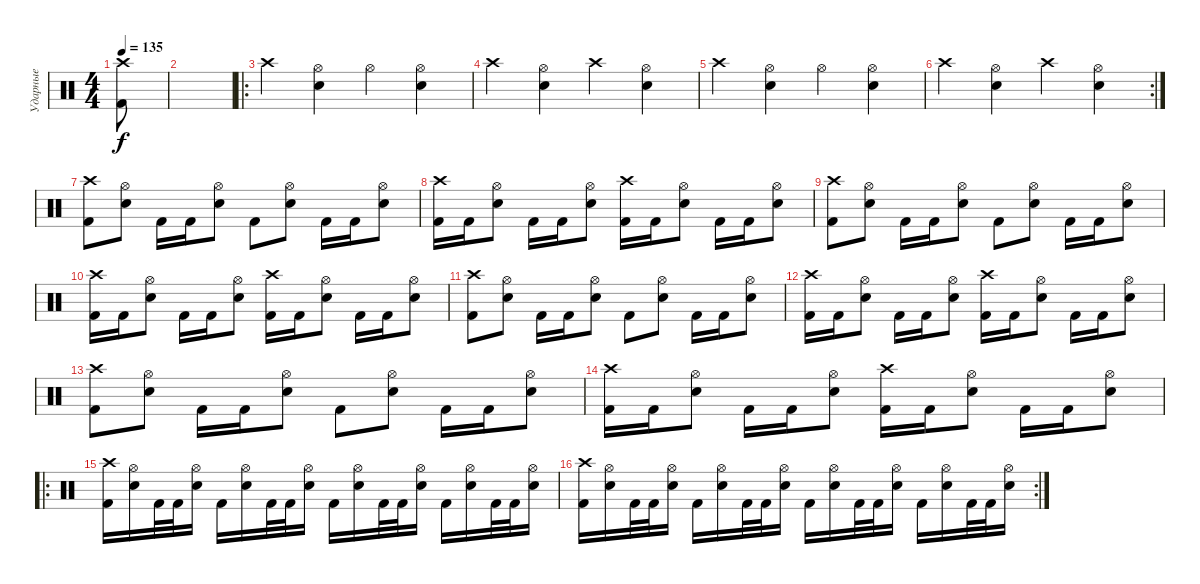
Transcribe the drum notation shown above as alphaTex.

\track ("Ударные" "Ударные") {instrument percussion}
\staff {score}
\articulation defaults
\ts (4 4)
\tempo 135
\clef neutral
\ks c
("Kick (hit) 2" "Crash high (hit)").8{dy f} |
|
\ro "Crash high (hit)".4
("Hi-Hat (open)" "Electric Snare (hit)").4 "Hi-Hat (open)".4 ("Hi-Hat (open)" "Electric Snare (hit)").4 |
"Crash high (hit)".4 ("Hi-Hat (open)" "Electric Snare (hit)").4 "Crash high (hit)".4 ("Hi-Hat (open)" "Electric Snare (hit)").4 |
"Crash high (hit)".4 ("Hi-Hat (open)" "Electric Snare (hit)").4 "Hi-Hat (open)".4 ("Hi-Hat (open)" "Electric Snare (hit)").4 |
\rc 2 "Crash high (hit)".4
("Hi-Hat (open)" "Electric Snare (hit)").4 "Crash high (hit)".4 ("Hi-Hat (open)" "Electric Snare (hit)").4 |
("Kick (hit) 2" "Crash high (hit)").8 ("Electric Snare (hit)" "Hi-Hat (open)").8 "Kick (hit) 2".16 "Kick (hit) 2".16 ("Electric Snare (hit)" "Hi-Hat (open)").8 "Kick (hit) 2".8 ("Electric Snare (hit)" "Hi-Hat (open)").8 "Kick (hit) 2".16 "Kick (hit) 2".16 ("Electric Snare (hit)" "Hi-Hat (open)").8 |
("Kick (hit) 2" "Crash high (hit)").16 "Kick (hit) 2".16 ("Electric Snare (hit)" "Hi-Hat (open)").8 "Kick (hit) 2".16 "Kick (hit) 2".16 ("Electric Snare (hit)" "Hi-Hat (open)").8 ("Kick (hit) 2" "Crash high (hit)").16 "Kick (hit) 2".16 ("Electric Snare (hit)" "Hi-Hat (open)").8 "Kick (hit) 2".16 "Kick (hit) 2".16 ("Electric Snare (hit)" "Hi-Hat (open)").8 |
("Kick (hit) 2" "Crash high (hit)").8 ("Electric Snare (hit)" "Hi-Hat (open)").8 "Kick (hit) 2".16 "Kick (hit) 2".16 ("Electric Snare (hit)" "Hi-Hat (open)").8 "Kick (hit) 2".8 ("Electric Snare (hit)" "Hi-Hat (open)").8 "Kick (hit) 2".16 "Kick (hit) 2".16 ("Electric Snare (hit)" "Hi-Hat (open)").8 |
("Kick (hit) 2" "Crash high (hit)").16 "Kick (hit) 2".16 ("Electric Snare (hit)" "Hi-Hat (open)").8 "Kick (hit) 2".16 "Kick (hit) 2".16 ("Electric Snare (hit)" "Hi-Hat (open)").8 ("Kick (hit) 2" "Crash high (hit)").16 "Kick (hit) 2".16 ("Electric Snare (hit)" "Hi-Hat (open)").8 "Kick (hit) 2".16 "Kick (hit) 2".16 ("Electric Snare (hit)" "Hi-Hat (open)").8 |
("Kick (hit) 2" "Crash high (hit)").8 ("Electric Snare (hit)" "Hi-Hat (open)").8 "Kick (hit) 2".16 "Kick (hit) 2".16 ("Electric Snare (hit)" "Hi-Hat (open)").8 "Kick (hit) 2".8 ("Electric Snare (hit)" "Hi-Hat (open)").8 "Kick (hit) 2".16 "Kick (hit) 2".16 ("Electric Snare (hit)" "Hi-Hat (open)").8 |
("Kick (hit) 2" "Crash high (hit)").16 "Kick (hit) 2".16 ("Electric Snare (hit)" "Hi-Hat (open)").8 "Kick (hit) 2".16 "Kick (hit) 2".16 ("Electric Snare (hit)" "Hi-Hat (open)").8 ("Kick (hit) 2" "Crash high (hit)").16 "Kick (hit) 2".16 ("Electric Snare (hit)" "Hi-Hat (open)").8 "Kick (hit) 2".16 "Kick (hit) 2".16 ("Electric Snare (hit)" "Hi-Hat (open)").8 |
("Kick (hit) 2" "Crash high (hit)").8 ("Electric Snare (hit)" "Hi-Hat (open)").8 "Kick (hit) 2".16 "Kick (hit) 2".16 ("Electric Snare (hit)" "Hi-Hat (open)").8 "Kick (hit) 2".8 ("Electric Snare (hit)" "Hi-Hat (open)").8 "Kick (hit) 2".16 "Kick (hit) 2".16 ("Electric Snare (hit)" "Hi-Hat (open)").8 |
("Kick (hit) 2" "Crash high (hit)").16 "Kick (hit) 2".16 ("Electric Snare (hit)" "Hi-Hat (open)").8 "Kick (hit) 2".16 "Kick (hit) 2".16 ("Electric Snare (hit)" "Hi-Hat (open)").8 ("Kick (hit) 2" "Crash high (hit)").16 "Kick (hit) 2".16 ("Electric Snare (hit)" "Hi-Hat (open)").8 "Kick (hit) 2".16 "Kick (hit) 2".16 ("Electric Snare (hit)" "Hi-Hat (open)").8 |
\ro
("Kick (hit) 2" "Crash high (hit)").16 ("Electric Snare (hit)" "Hi-Hat (open)").16 "Kick (hit) 2".32 "Kick (hit) 2".32 ("Electric Snare (hit)" "Hi-Hat (open)").16 "Kick (hit) 2".16 ("Electric Snare (hit)" "Hi-Hat (open)").16 "Kick (hit) 2".32 "Kick (hit) 2".32 ("Electric Snare (hit)" "Hi-Hat (open)").16 "Kick (hit) 2".16 ("Electric Snare (hit)" "Hi-Hat (open)").16 "Kick (hit) 2".32 "Kick (hit) 2".32 ("Electric Snare (hit)" "Hi-Hat (open)").16 "Kick (hit) 2".16 ("Electric Snare (hit)" "Hi-Hat (open)").16 "Kick (hit) 2".32 "Kick (hit) 2".32 ("Electric Snare (hit)" "Hi-Hat (open)").16 |
\rc 2
("Kick (hit) 2" "Crash high (hit)").16 ("Electric Snare (hit)" "Hi-Hat (open)").16 "Kick (hit) 2".32 "Kick (hit) 2".32 ("Electric Snare (hit)" "Hi-Hat (open)").16 "Kick (hit) 2".16 ("Electric Snare (hit)" "Hi-Hat (open)").16 "Kick (hit) 2".32 "Kick (hit) 2".32 ("Electric Snare (hit)" "Hi-Hat (open)").16 "Kick (hit) 2".16 ("Electric Snare (hit)" "Hi-Hat (open)").16 "Kick (hit) 2".32 "Kick (hit) 2".32 ("Electric Snare (hit)" "Hi-Hat (open)").16 "Kick (hit) 2".16 ("Electric Snare (hit)" "Hi-Hat (open)").16 "Kick (hit) 2".32 "Kick (hit) 2".32 ("Electric Snare (hit)" "Hi-Hat (open)").16
